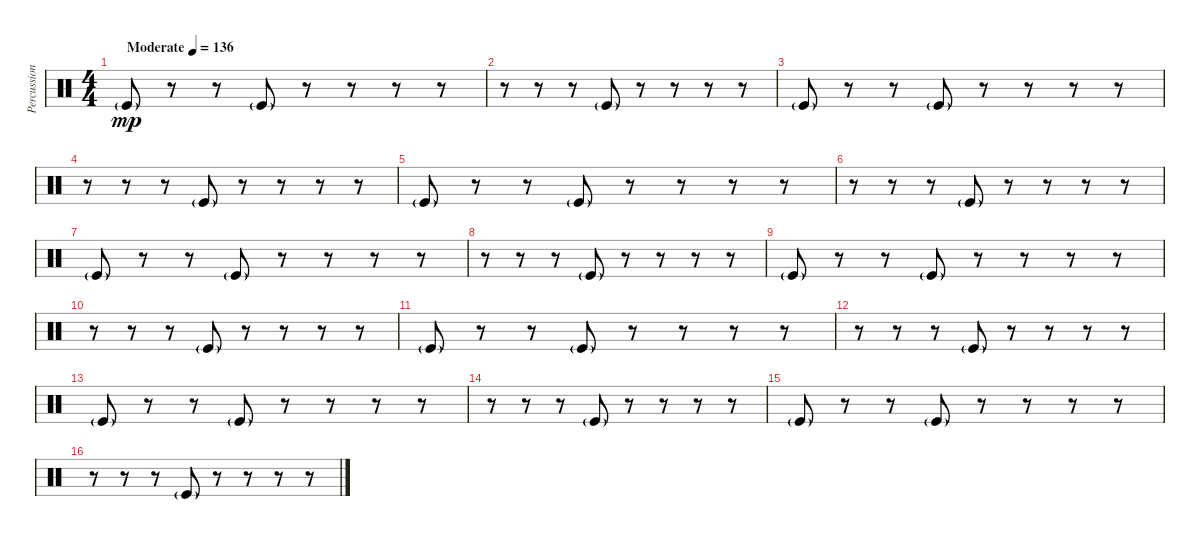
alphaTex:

\track ("Percussion" "Percussion") {instrument percussion}
\staff {score}
\articulation defaults
\ts (4 4)
\tempo (136 "Moderate")
\clef neutral
\ks c "Kick (hit)"{g}.8{dy mp}
r.8 r.8 "Kick (hit)"{g}.8 r.8 r.8 r.8 r.8 |
r.8 r.8 r.8 "Kick (hit)"{g}.8 r.8 r.8 r.8 r.8 |
"Kick (hit)"{g}.8 r.8 r.8 "Kick (hit)"{g}.8 r.8 r.8 r.8 r.8 |
r.8 r.8 r.8 "Kick (hit)"{g}.8 r.8 r.8 r.8 r.8 |
"Kick (hit)"{g}.8 r.8 r.8 "Kick (hit)"{g}.8 r.8 r.8 r.8 r.8 |
r.8 r.8 r.8 "Kick (hit)"{g}.8 r.8 r.8 r.8 r.8 |
"Kick (hit)"{g}.8 r.8 r.8 "Kick (hit)"{g}.8 r.8 r.8 r.8 r.8 |
r.8 r.8 r.8 "Kick (hit)"{g}.8 r.8 r.8 r.8 r.8 |
"Kick (hit)"{g}.8 r.8 r.8 "Kick (hit)"{g}.8 r.8 r.8 r.8 r.8 |
r.8 r.8 r.8 "Kick (hit)"{g}.8 r.8 r.8 r.8 r.8 |
"Kick (hit)"{g}.8 r.8 r.8 "Kick (hit)"{g}.8 r.8 r.8 r.8 r.8 |
r.8 r.8 r.8 "Kick (hit)"{g}.8 r.8 r.8 r.8 r.8 |
"Kick (hit)"{g}.8 r.8 r.8 "Kick (hit)"{g}.8 r.8 r.8 r.8 r.8 |
r.8 r.8 r.8 "Kick (hit)"{g}.8 r.8 r.8 r.8 r.8 |
"Kick (hit)"{g}.8 r.8 r.8 "Kick (hit)"{g}.8 r.8 r.8 r.8 r.8 |
r.8 r.8 r.8 "Kick (hit)"{g}.8 r.8 r.8 r.8 r.8
